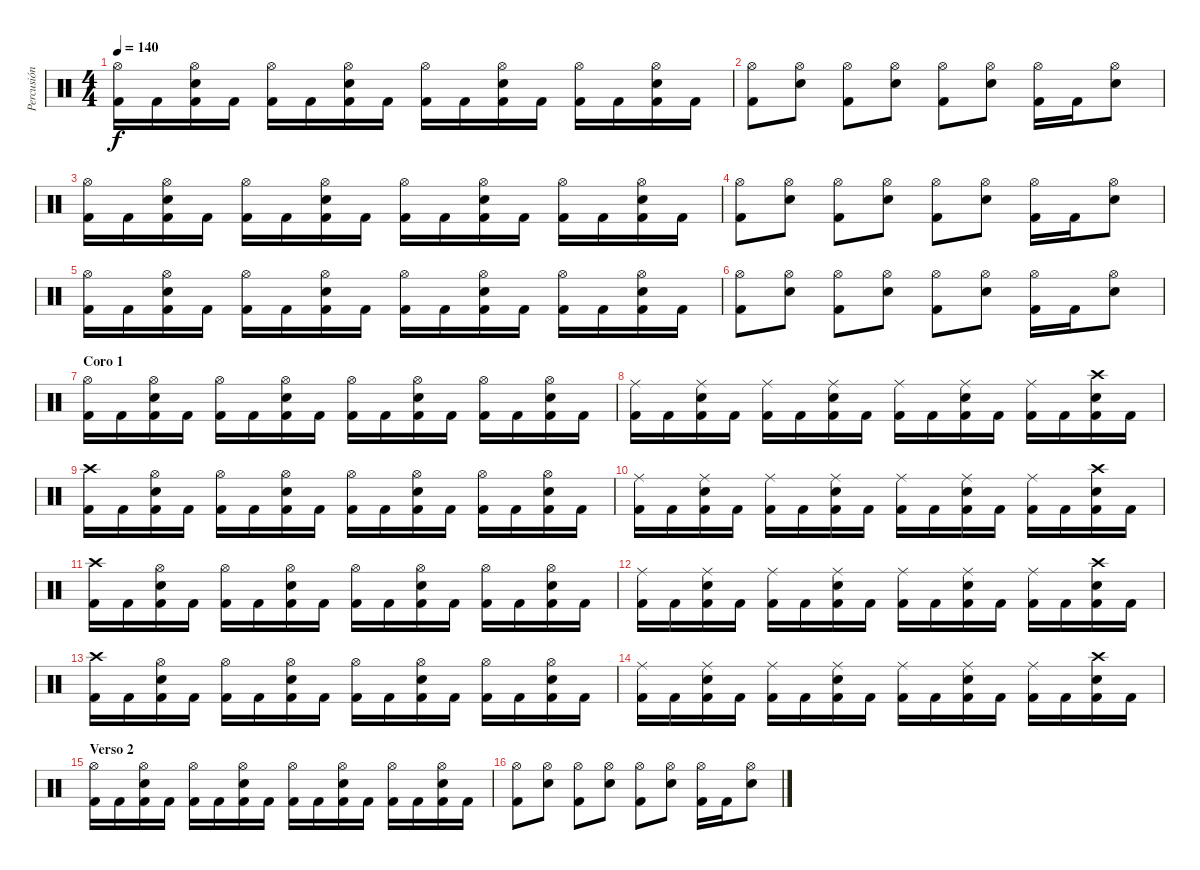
\track ("Percusión" "Percusión") {instrument percussion}
\staff {score}
\articulation defaults
\ts (4 4)
\tempo 140
\clef neutral
\ks c
("Hi-Hat (open)" "Kick (hit) 2").16{dy f} "Kick (hit) 2".16 ("Hi-Hat (open)" "Snare (hit) 2" "Kick (hit) 2").16 "Kick (hit) 2".16 ("Hi-Hat (open)" "Kick (hit) 2").16 "Kick (hit) 2".16 ("Hi-Hat (open)" "Snare (hit) 2" "Kick (hit) 2").16 "Kick (hit) 2".16 ("Hi-Hat (open)" "Kick (hit) 2").16 "Kick (hit) 2".16 ("Hi-Hat (open)" "Snare (hit) 2" "Kick (hit) 2").16 "Kick (hit) 2".16 ("Hi-Hat (open)" "Kick (hit) 2").16 "Kick (hit) 2".16 ("Hi-Hat (open)" "Snare (hit) 2" "Kick (hit) 2").16 "Kick (hit) 2".16 |
("Hi-Hat (open)" "Kick (hit) 2").8 ("Hi-Hat (open)" "Snare (hit) 2").8 ("Hi-Hat (open)" "Kick (hit) 2").8 ("Hi-Hat (open)" "Snare (hit) 2").8 ("Hi-Hat (open)" "Kick (hit) 2").8 ("Hi-Hat (open)" "Snare (hit) 2").8 ("Hi-Hat (open)" "Kick (hit) 2").16 "Kick (hit) 2".16 ("Hi-Hat (open)" "Snare (hit) 2").8 |
("Hi-Hat (open)" "Kick (hit) 2").16 "Kick (hit) 2".16 ("Hi-Hat (open)" "Snare (hit) 2" "Kick (hit) 2").16 "Kick (hit) 2".16 ("Hi-Hat (open)" "Kick (hit) 2").16 "Kick (hit) 2".16 ("Hi-Hat (open)" "Snare (hit) 2" "Kick (hit) 2").16 "Kick (hit) 2".16 ("Hi-Hat (open)" "Kick (hit) 2").16 "Kick (hit) 2".16 ("Hi-Hat (open)" "Snare (hit) 2" "Kick (hit) 2").16 "Kick (hit) 2".16 ("Hi-Hat (open)" "Kick (hit) 2").16 "Kick (hit) 2".16 ("Hi-Hat (open)" "Snare (hit) 2" "Kick (hit) 2").16 "Kick (hit) 2".16 |
("Hi-Hat (open)" "Kick (hit) 2").8 ("Hi-Hat (open)" "Snare (hit) 2").8 ("Hi-Hat (open)" "Kick (hit) 2").8 ("Hi-Hat (open)" "Snare (hit) 2").8 ("Hi-Hat (open)" "Kick (hit) 2").8 ("Hi-Hat (open)" "Snare (hit) 2").8 ("Hi-Hat (open)" "Kick (hit) 2").16 "Kick (hit) 2".16 ("Hi-Hat (open)" "Snare (hit) 2").8 |
("Hi-Hat (open)" "Kick (hit) 2").16 "Kick (hit) 2".16 ("Hi-Hat (open)" "Snare (hit) 2" "Kick (hit) 2").16 "Kick (hit) 2".16 ("Hi-Hat (open)" "Kick (hit) 2").16 "Kick (hit) 2".16 ("Hi-Hat (open)" "Snare (hit) 2" "Kick (hit) 2").16 "Kick (hit) 2".16 ("Hi-Hat (open)" "Kick (hit) 2").16 "Kick (hit) 2".16 ("Hi-Hat (open)" "Snare (hit) 2" "Kick (hit) 2").16 "Kick (hit) 2".16 ("Hi-Hat (open)" "Kick (hit) 2").16 "Kick (hit) 2".16 ("Hi-Hat (open)" "Snare (hit) 2" "Kick (hit) 2").16 "Kick (hit) 2".16 |
("Hi-Hat (open)" "Kick (hit) 2").8 ("Hi-Hat (open)" "Snare (hit) 2").8 ("Hi-Hat (open)" "Kick (hit) 2").8 ("Hi-Hat (open)" "Snare (hit) 2").8 ("Hi-Hat (open)" "Kick (hit) 2").8 ("Hi-Hat (open)" "Snare (hit) 2").8 ("Hi-Hat (open)" "Kick (hit) 2").16 "Kick (hit) 2".16 ("Hi-Hat (open)" "Snare (hit) 2").8 |
\section ("" "Coro 1")
("Hi-Hat (open)" "Kick (hit) 2").16 "Kick (hit) 2".16 ("Hi-Hat (open)" "Snare (hit) 2" "Kick (hit) 2").16 "Kick (hit) 2".16 ("Hi-Hat (open)" "Kick (hit) 2").16 "Kick (hit) 2".16 ("Hi-Hat (open)" "Snare (hit) 2" "Kick (hit) 2").16 "Kick (hit) 2".16 ("Hi-Hat (open)" "Kick (hit) 2").16 "Kick (hit) 2".16 ("Hi-Hat (open)" "Snare (hit) 2" "Kick (hit) 2").16 "Kick (hit) 2".16 ("Hi-Hat (open)" "Kick (hit) 2").16 "Kick (hit) 2".16 ("Hi-Hat (open)" "Snare (hit) 2" "Kick (hit) 2").16 "Kick (hit) 2".16 |
("Ride (middle)" "Kick (hit) 2").16 "Kick (hit) 2".16 ("Ride (middle)" "Snare (hit) 2" "Kick (hit) 2").16 "Kick (hit) 2".16 ("Ride (middle)" "Kick (hit) 2").16 "Kick (hit) 2".16 ("Ride (middle)" "Snare (hit) 2" "Kick (hit) 2").16 "Kick (hit) 2".16 ("Ride (middle)" "Kick (hit) 2").16 "Kick (hit) 2".16 ("Ride (middle)" "Snare (hit) 2" "Kick (hit) 2").16 "Kick (hit) 2".16 ("Ride (middle)" "Kick (hit) 2").16 "Kick (hit) 2".16 ("Crash high (hit)" "Snare (hit) 2" "Kick (hit) 2").16 "Kick (hit) 2".16 |
("Crash high (hit)" "Kick (hit) 2").16 "Kick (hit) 2".16 ("Hi-Hat (open)" "Snare (hit) 2" "Kick (hit) 2").16 "Kick (hit) 2".16 ("Hi-Hat (open)" "Kick (hit) 2").16 "Kick (hit) 2".16 ("Hi-Hat (open)" "Snare (hit) 2" "Kick (hit) 2").16 "Kick (hit) 2".16 ("Hi-Hat (open)" "Kick (hit) 2").16 "Kick (hit) 2".16 ("Hi-Hat (open)" "Snare (hit) 2" "Kick (hit) 2").16 "Kick (hit) 2".16 ("Hi-Hat (open)" "Kick (hit) 2").16 "Kick (hit) 2".16 ("Hi-Hat (open)" "Snare (hit) 2" "Kick (hit) 2").16 "Kick (hit) 2".16 |
("Ride (middle)" "Kick (hit) 2").16 "Kick (hit) 2".16 ("Ride (middle)" "Snare (hit) 2" "Kick (hit) 2").16 "Kick (hit) 2".16 ("Ride (middle)" "Kick (hit) 2").16 "Kick (hit) 2".16 ("Ride (middle)" "Snare (hit) 2" "Kick (hit) 2").16 "Kick (hit) 2".16 ("Ride (middle)" "Kick (hit) 2").16 "Kick (hit) 2".16 ("Ride (middle)" "Snare (hit) 2" "Kick (hit) 2").16 "Kick (hit) 2".16 ("Ride (middle)" "Kick (hit) 2").16 "Kick (hit) 2".16 ("Crash high (hit)" "Snare (hit) 2" "Kick (hit) 2").16 "Kick (hit) 2".16 |
("Crash high (hit)" "Kick (hit) 2").16 "Kick (hit) 2".16 ("Hi-Hat (open)" "Snare (hit) 2" "Kick (hit) 2").16 "Kick (hit) 2".16 ("Hi-Hat (open)" "Kick (hit) 2").16 "Kick (hit) 2".16 ("Hi-Hat (open)" "Snare (hit) 2" "Kick (hit) 2").16 "Kick (hit) 2".16 ("Hi-Hat (open)" "Kick (hit) 2").16 "Kick (hit) 2".16 ("Hi-Hat (open)" "Snare (hit) 2" "Kick (hit) 2").16 "Kick (hit) 2".16 ("Hi-Hat (open)" "Kick (hit) 2").16 "Kick (hit) 2".16 ("Hi-Hat (open)" "Snare (hit) 2" "Kick (hit) 2").16 "Kick (hit) 2".16 |
("Ride (middle)" "Kick (hit) 2").16 "Kick (hit) 2".16 ("Ride (middle)" "Snare (hit) 2" "Kick (hit) 2").16 "Kick (hit) 2".16 ("Ride (middle)" "Kick (hit) 2").16 "Kick (hit) 2".16 ("Ride (middle)" "Snare (hit) 2" "Kick (hit) 2").16 "Kick (hit) 2".16 ("Ride (middle)" "Kick (hit) 2").16 "Kick (hit) 2".16 ("Ride (middle)" "Snare (hit) 2" "Kick (hit) 2").16 "Kick (hit) 2".16 ("Ride (middle)" "Kick (hit) 2").16 "Kick (hit) 2".16 ("Crash high (hit)" "Snare (hit) 2" "Kick (hit) 2").16 "Kick (hit) 2".16 |
("Crash high (hit)" "Kick (hit) 2").16 "Kick (hit) 2".16 ("Hi-Hat (open)" "Snare (hit) 2" "Kick (hit) 2").16 "Kick (hit) 2".16 ("Hi-Hat (open)" "Kick (hit) 2").16 "Kick (hit) 2".16 ("Hi-Hat (open)" "Snare (hit) 2" "Kick (hit) 2").16 "Kick (hit) 2".16 ("Hi-Hat (open)" "Kick (hit) 2").16 "Kick (hit) 2".16 ("Hi-Hat (open)" "Snare (hit) 2" "Kick (hit) 2").16 "Kick (hit) 2".16 ("Hi-Hat (open)" "Kick (hit) 2").16 "Kick (hit) 2".16 ("Hi-Hat (open)" "Snare (hit) 2" "Kick (hit) 2").16 "Kick (hit) 2".16 |
("Ride (middle)" "Kick (hit) 2").16 "Kick (hit) 2".16 ("Ride (middle)" "Snare (hit) 2" "Kick (hit) 2").16 "Kick (hit) 2".16 ("Ride (middle)" "Kick (hit) 2").16 "Kick (hit) 2".16 ("Ride (middle)" "Snare (hit) 2" "Kick (hit) 2").16 "Kick (hit) 2".16 ("Ride (middle)" "Kick (hit) 2").16 "Kick (hit) 2".16 ("Ride (middle)" "Snare (hit) 2" "Kick (hit) 2").16 "Kick (hit) 2".16 ("Ride (middle)" "Kick (hit) 2").16 "Kick (hit) 2".16 ("Crash high (hit)" "Snare (hit) 2" "Kick (hit) 2").16 "Kick (hit) 2".16 |
\section ("" "Verso 2")
("Hi-Hat (open)" "Kick (hit) 2").16 "Kick (hit) 2".16 ("Hi-Hat (open)" "Snare (hit) 2" "Kick (hit) 2").16 "Kick (hit) 2".16 ("Hi-Hat (open)" "Kick (hit) 2").16 "Kick (hit) 2".16 ("Hi-Hat (open)" "Snare (hit) 2" "Kick (hit) 2").16 "Kick (hit) 2".16 ("Hi-Hat (open)" "Kick (hit) 2").16 "Kick (hit) 2".16 ("Hi-Hat (open)" "Snare (hit) 2" "Kick (hit) 2").16 "Kick (hit) 2".16 ("Hi-Hat (open)" "Kick (hit) 2").16 "Kick (hit) 2".16 ("Hi-Hat (open)" "Snare (hit) 2" "Kick (hit) 2").16 "Kick (hit) 2".16 |
("Hi-Hat (open)" "Kick (hit) 2").8 ("Hi-Hat (open)" "Snare (hit) 2").8 ("Hi-Hat (open)" "Kick (hit) 2").8 ("Hi-Hat (open)" "Snare (hit) 2").8 ("Hi-Hat (open)" "Kick (hit) 2").8 ("Hi-Hat (open)" "Snare (hit) 2").8 ("Hi-Hat (open)" "Kick (hit) 2").16 "Kick (hit) 2".16 ("Hi-Hat (open)" "Snare (hit) 2").8
